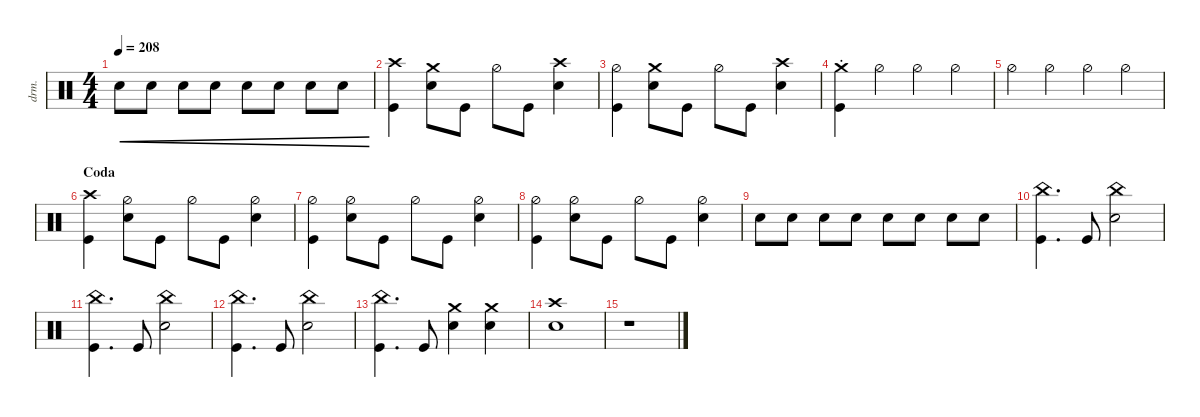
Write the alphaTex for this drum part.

\defaultSystemsLayout 4
\hideDynamics
\bracketExtendMode nobrackets
\otherSystemsTrackNameOrientation horizontal
\track ("Drums" "drm.") {multiBarRest instrument percussion}
\staff
\articulation defaults
\ts (4 4)
\tempo 208
\clef neutral
\ks c "Snare (hit) 2".8{cre dy ff} "Snare (hit) 2".8{cre} "Snare (hit) 2".8{cre} "Snare (hit) 2".8{cre} "Snare (hit) 2".8{cre} "Snare (hit) 2".8{cre} "Snare (hit) 2".8{cre} "Snare (hit) 2".8{cre}
|
("Kick (hit)" "Crash high (hit)").4{dy f} ("Snare (hit) 2" "Crash medium (hit)").8 "Kick (hit)".8 "Hi-Hat (half)".8 "Kick (hit)".8 ("Snare (hit) 2" "Crash high (hit)").4 |
("Kick (hit)" "Hi-Hat (half)").4 ("Snare (hit) 2" "Crash medium (hit)").8 "Kick (hit)".8 "Hi-Hat (half)".8 "Kick (hit)".8 ("Snare (hit) 2" "Crash high (hit)").4 |
("Kick (hit)" "Crash medium (hit)"{st}).4 "Hi-Hat (half)".4 "Hi-Hat (half)".4 "Hi-Hat (half)".4 |
"Hi-Hat (half)".4 "Hi-Hat (half)".4 "Hi-Hat (half)".4 "Hi-Hat (half)".4 |
\section ("" "Coda")
("Kick (hit)" "Crash high (hit)").4 ("Snare (hit) 2" "Hi-Hat (half)").8 "Kick (hit)".8 "Hi-Hat (half)".8 "Kick (hit)".8 ("Snare (hit) 2" "Hi-Hat (half)").4 |
("Kick (hit)" "Hi-Hat (half)").4 ("Snare (hit) 2" "Hi-Hat (half)").8 "Kick (hit)".8 "Hi-Hat (half)".8 "Kick (hit)".8 ("Snare (hit) 2" "Hi-Hat (half)").4 |
("Kick (hit)" "Hi-Hat (half)").4 ("Snare (hit) 2" "Hi-Hat (half)").8 "Kick (hit)".8 "Hi-Hat (half)".8 "Kick (hit)".8 ("Snare (hit) 2" "Hi-Hat (half)").4 |
"Snare (hit) 2".8 "Snare (hit) 2".8 "Snare (hit) 2".8 "Snare (hit) 2".8 "Snare (hit) 2".8 "Snare (hit) 2".8 "Snare (hit) 2".8 "Snare (hit) 2".8 |
("China (hit)" "Kick (hit)").4{d} "Kick (hit)".8 ("Snare (hit) 2" "China (hit)").2 |
("China (hit)" "Kick (hit)").4{d} "Kick (hit)".8 ("Snare (hit) 2" "China (hit)").2 |
("China (hit)" "Kick (hit)").4{d} "Kick (hit)".8 ("Snare (hit) 2" "China (hit)").2 |
("China (hit)" "Kick (hit)").4{d} "Kick (hit)".8 ("Snare (hit) 2" "Crash medium (hit)").4 ("Snare (hit) 2" "Crash medium (hit)").4 |
("Snare (hit) 2" "Crash high (hit)").1 |
r.1
